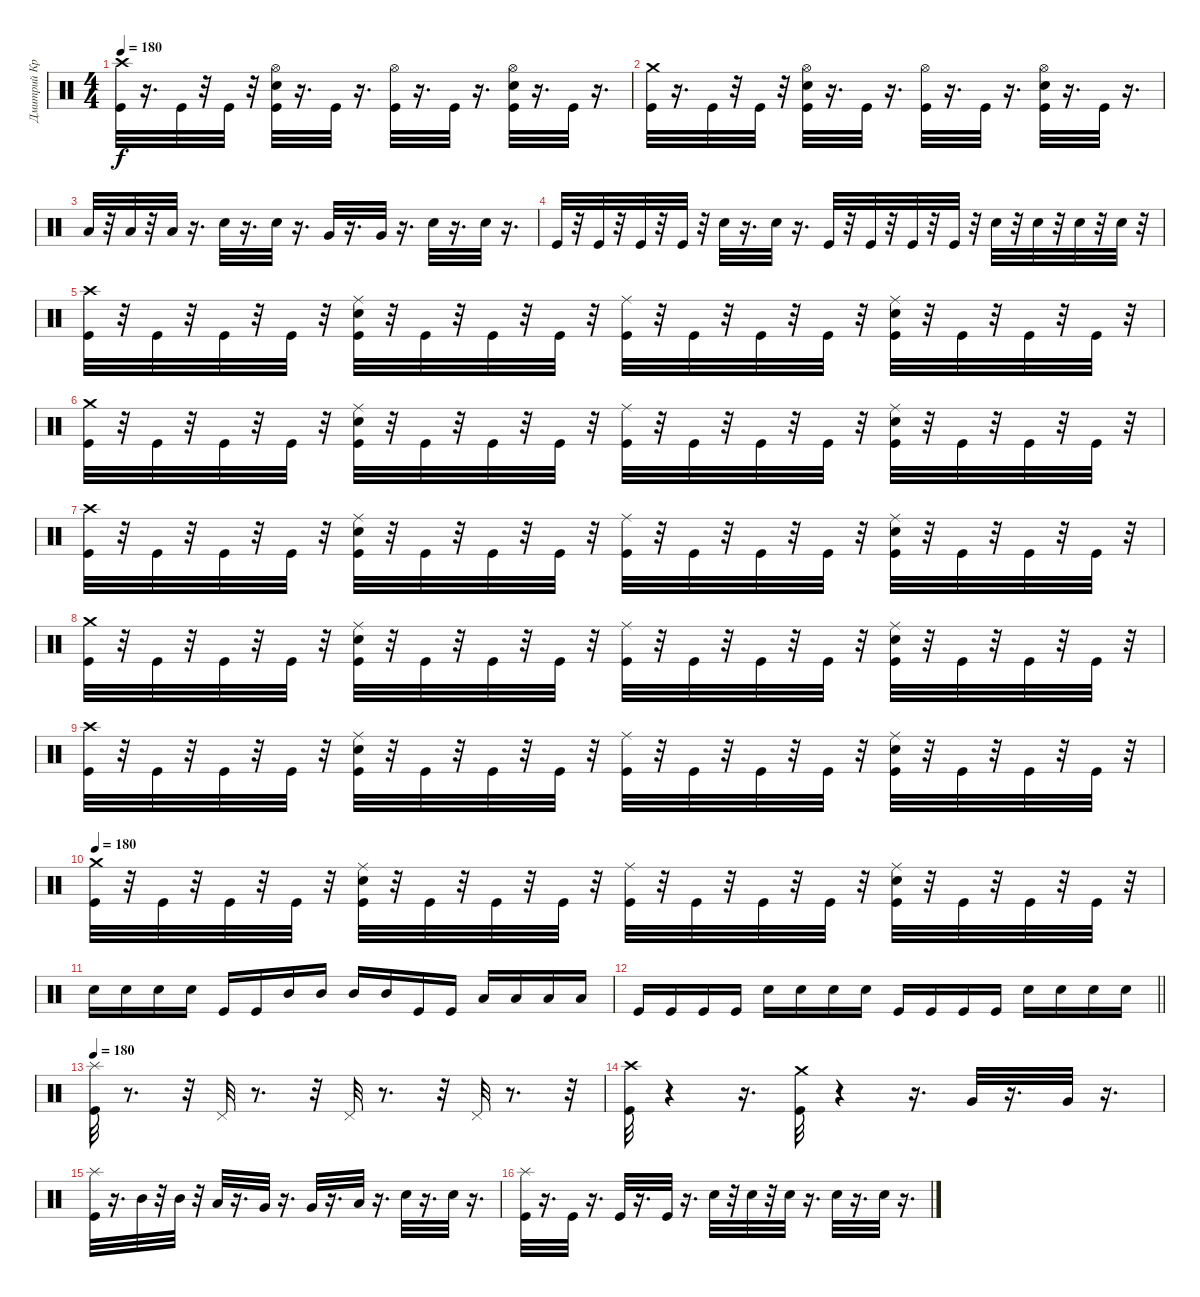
\track ("Дмитрий Кривенков" "Дмитрий Кр") {instrument percussion}
\staff {score}
\articulation defaults
\ts (4 4)
\tempo 180
\clef neutral
\ks c
("Kick (hit)" "Crash high (hit)").32{dy f} r.16{d} "Kick (hit)".32 r.32 "Kick (hit)".32 r.32 ("Kick (hit)" "Electric Snare (hit)" "Hi-Hat (open)").32 r.16{d} "Kick (hit)".32 r.16{d} ("Kick (hit)" "Hi-Hat (open)").32 r.16{d} "Kick (hit)".32 r.16{d} ("Electric Snare (hit)" "Kick (hit)" "Hi-Hat (open)").32 r.16{d} "Kick (hit)".32 r.16{d} |
("Kick (hit)" "Crash medium (hit)").32 r.16{d} "Kick (hit)".32 r.32 "Kick (hit)".32 r.32 ("Kick (hit)" "Electric Snare (hit)" "Hi-Hat (open)").32 r.16{d} "Kick (hit)".32 r.16{d} ("Kick (hit)" "Hi-Hat (open)").32 r.16{d} "Kick (hit)".32 r.16{d} ("Kick (hit)" "Hi-Hat (open)" "Electric Snare (hit)").32 r.16{d} "Kick (hit)".32 r.16{d} |
"Low Tom (hit)".32 r.32 "Low Tom (hit)".32 r.32 "Low Tom (hit)".32 r.16{d} "Electric Snare (hit)".32 r.16{d} "Electric Snare (hit)".32 r.16{d} "Very Low Tom (hit)".32 r.16{d} "Very Low Tom (hit)".32 r.16{d} "Electric Snare (hit)".32 r.16{d} "Electric Snare (hit)".32 r.16{d} |
"Kick (hit)".32 r.32 "Kick (hit)".32 r.32 "Kick (hit)".32 r.32 "Kick (hit)".32 r.32 "Electric Snare (hit)".32 r.16{d} "Electric Snare (hit)".32 r.16{d} "Kick (hit)".32 r.32 "Kick (hit)".32 r.32 "Kick (hit)".32 r.32 "Kick (hit)".32 r.32 "Electric Snare (hit)".32 r.32 "Electric Snare (hit)".32 r.32 "Electric Snare (hit)".32 r.32 "Electric Snare (hit)".32 r.32 |
("Kick (hit)" "Crash high (hit)").32 r.32 "Kick (hit)".32 r.32 "Kick (hit)".32 r.32 "Kick (hit)".32 r.32 ("Ride (middle)" "Kick (hit)" "Electric Snare (hit)").32 r.32 "Kick (hit)".32 r.32 "Kick (hit)".32 r.32 "Kick (hit)".32 r.32 ("Ride (middle)" "Kick (hit)").32 r.32 "Kick (hit)".32 r.32 "Kick (hit)".32 r.32 "Kick (hit)".32 r.32 ("Ride (middle)" "Kick (hit)" "Electric Snare (hit)").32 r.32 "Kick (hit)".32 r.32 "Kick (hit)".32 r.32 "Kick (hit)".32 r.32 |
("Crash medium (hit)" "Kick (hit)").32 r.32 "Kick (hit)".32 r.32 "Kick (hit)".32 r.32 "Kick (hit)".32 r.32 ("Ride (middle)" "Electric Snare (hit)" "Kick (hit)").32 r.32 "Kick (hit)".32 r.32 "Kick (hit)".32 r.32 "Kick (hit)".32 r.32 ("Ride (middle)" "Kick (hit)").32 r.32 "Kick (hit)".32 r.32 "Kick (hit)".32 r.32 "Kick (hit)".32 r.32 ("Ride (middle)" "Electric Snare (hit)" "Kick (hit)").32 r.32 "Kick (hit)".32 r.32 "Kick (hit)".32 r.32 "Kick (hit)".32 r.32 |
("Crash high (hit)" "Kick (hit)").32 r.32 "Kick (hit)".32 r.32 "Kick (hit)".32 r.32 "Kick (hit)".32 r.32 ("Electric Snare (hit)" "Kick (hit)" "Ride (middle)").32 r.32 "Kick (hit)".32 r.32 "Kick (hit)".32 r.32 "Kick (hit)".32 r.32 ("Kick (hit)" "Ride (middle)").32 r.32 "Kick (hit)".32 r.32 "Kick (hit)".32 r.32 "Kick (hit)".32 r.32 ("Electric Snare (hit)" "Kick (hit)" "Ride (middle)").32 r.32 "Kick (hit)".32 r.32 "Kick (hit)".32 r.32 "Kick (hit)".32 r.32 |
("Kick (hit)" "Crash medium (hit)").32 r.32 "Kick (hit)".32 r.32 "Kick (hit)".32 r.32 "Kick (hit)".32 r.32 ("Ride (middle)" "Electric Snare (hit)" "Kick (hit)").32 r.32 "Kick (hit)".32 r.32 "Kick (hit)".32 r.32 "Kick (hit)".32 r.32 ("Ride (middle)" "Kick (hit)").32 r.32 "Kick (hit)".32 r.32 "Kick (hit)".32 r.32 "Kick (hit)".32 r.32 ("Kick (hit)" "Electric Snare (hit)" "Ride (middle)").32 r.32 "Kick (hit)".32 r.32 "Kick (hit)".32 r.32 "Kick (hit)".32 r.32 |
("Kick (hit)" "Crash high (hit)").32 r.32 "Kick (hit)".32 r.32 "Kick (hit)".32 r.32 "Kick (hit)".32 r.32 ("Ride (middle)" "Kick (hit)" "Electric Snare (hit)").32 r.32 "Kick (hit)".32 r.32 "Kick (hit)".32 r.32 "Kick (hit)".32 r.32 ("Ride (middle)" "Kick (hit)").32 r.32 "Kick (hit)".32 r.32 "Kick (hit)".32 r.32 "Kick (hit)".32 r.32 ("Ride (middle)" "Kick (hit)" "Electric Snare (hit)").32 r.32 "Kick (hit)".32 r.32 "Kick (hit)".32 r.32 "Kick (hit)".32 r.32 |
\tempo 180
("Crash medium (hit)" "Kick (hit)").32 r.32 "Kick (hit)".32 r.32 "Kick (hit)".32 r.32 "Kick (hit)".32 r.32 ("Ride (middle)" "Electric Snare (hit)" "Kick (hit)").32 r.32 "Kick (hit)".32 r.32 "Kick (hit)".32 r.32 "Kick (hit)".32 r.32 ("Ride (middle)" "Kick (hit)").32 r.32 "Kick (hit)".32 r.32 "Kick (hit)".32 r.32 "Kick (hit)".32 r.32 ("Kick (hit)" "Electric Snare (hit)" "Ride (middle)").32 r.32 "Kick (hit)".32 r.32 "Kick (hit)".32 r.32 "Kick (hit)".32 r.32 |
"Electric Snare (hit)".16 "Electric Snare (hit)".16 "Electric Snare (hit)".16 "Electric Snare (hit)".16 "Kick (hit)".16 "Kick (hit)".16 "Mid Tom (hit)".16 "Mid Tom (hit)".16 "Mid Tom (hit)".16 "Mid Tom (hit)".16 "Kick (hit)".16 "Kick (hit)".16 "Low Floor Tom (hit)".16 "Low Floor Tom (hit)".16 "Low Floor Tom (hit)".16 "Low Floor Tom (hit)".16 |
\barLineRight lightlight "Kick (hit)".16 "Kick (hit)".16 "Kick (hit)".16 "Kick (hit)".16 "Electric Snare (hit)".16 "Electric Snare (hit)".16 "Electric Snare (hit)".16 "Electric Snare (hit)".16 "Kick (hit)".16 "Kick (hit)".16 "Kick (hit)".16 "Kick (hit)".16 "Electric Snare (hit)".16 "Electric Snare (hit)".16 "Electric Snare (hit)".16 "Electric Snare (hit)".16
|
\tempo 180
("Kick (hit)" "Splash (hit)").32 r.8{d} r.32 "Pedal Hi-Hat (hit)".32 r.8{d} r.32 "Pedal Hi-Hat (hit)".32 r.8{d} r.32 "Pedal Hi-Hat (hit)".32 r.8{d} r.32 |
("Kick (hit)" "Crash high (hit)").32 r.4 r.16{d} ("Kick (hit)" "Crash medium (hit)").32 r.4 r.16{d} "Very Low Tom (hit)".32 r.16{d} "Very Low Tom (hit)".32 r.16{d} |
("Kick (hit)" "Splash (hit)").32 r.16{d} "Mid Tom (hit)".32 r.32 "Mid Tom (hit)".32 r.32 "Low Tom (hit)".32 r.16{d} "Very Low Tom (hit)".32 r.16{d} "Very Low Tom (hit)".32 r.16{d} "Low Floor Tom (hit)".32 r.16{d} "Electric Snare (hit)".32 r.16{d} "Electric Snare (hit)".32 r.16{d} |
("Kick (hit)" "Splash (hit)").32 r.16{d} "Kick (hit)".32 r.16{d} "Kick (hit)".32 r.16{d} "Kick (hit)".32 r.16{d} "Electric Snare (hit)".32 r.32 "Electric Snare (hit)".32 r.32 "Electric Snare (hit)".32 r.16{d} "Electric Snare (hit)".32 r.16{d} "Electric Snare (hit)".32 r.16{d}
